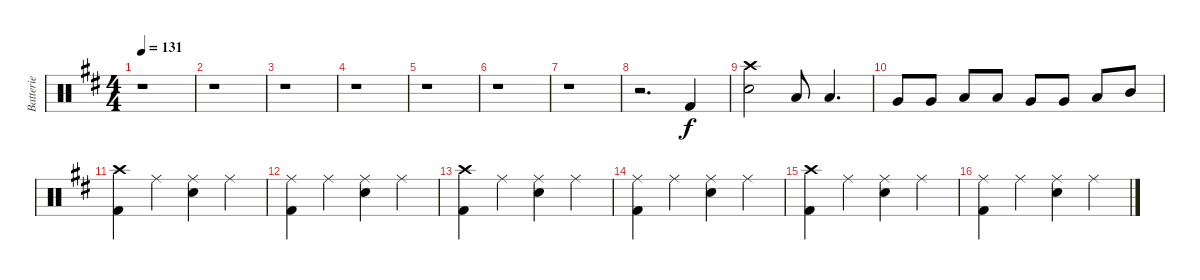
\track ("Batterie" "Batterie") {instrument percussion}
\staff {score}
\articulation defaults
\ts (4 4)
\tempo 131
\clef neutral
\ks d
r.1{dy f} |
r.1 |
r.1 |
r.1 |
r.1 |
r.1 |
r.1 |
r.2{d} "Kick (hit) 2".4 |
("Crash high (hit)" "Snare (hit) 2").2 "Low Tom (hit)".8 "Low Tom (hit)".4{d} |
"Very Low Tom (hit)".8 "Very Low Tom (hit)".8 "Low Floor Tom (hit)".8 "Low Floor Tom (hit)".8 "Very Low Tom (hit)".8 "Very Low Tom (hit)".8 "Low Tom (hit)".8 "Mid Tom (hit)".8 |
("Crash high (hit)" "Kick (hit) 2").4 "Ride (middle)".4 ("Ride (middle)" "Snare (hit) 2").4 "Ride (middle)".4 |
("Ride (middle)" "Kick (hit) 2").4 "Ride (middle)".4 ("Ride (middle)" "Snare (hit) 2").4 "Ride (middle)".4 |
("Crash high (hit)" "Kick (hit) 2").4 "Ride (middle)".4 ("Ride (middle)" "Snare (hit) 2").4 "Ride (middle)".4 |
("Ride (middle)" "Kick (hit) 2").4 "Ride (middle)".4 ("Ride (middle)" "Snare (hit) 2").4 "Ride (middle)".4 |
("Crash high (hit)" "Kick (hit) 2").4 "Ride (middle)".4 ("Ride (middle)" "Snare (hit) 2").4 "Ride (middle)".4 |
("Ride (middle)" "Kick (hit) 2").4 "Ride (middle)".4 ("Ride (middle)" "Snare (hit) 2").4 "Ride (middle)".4
